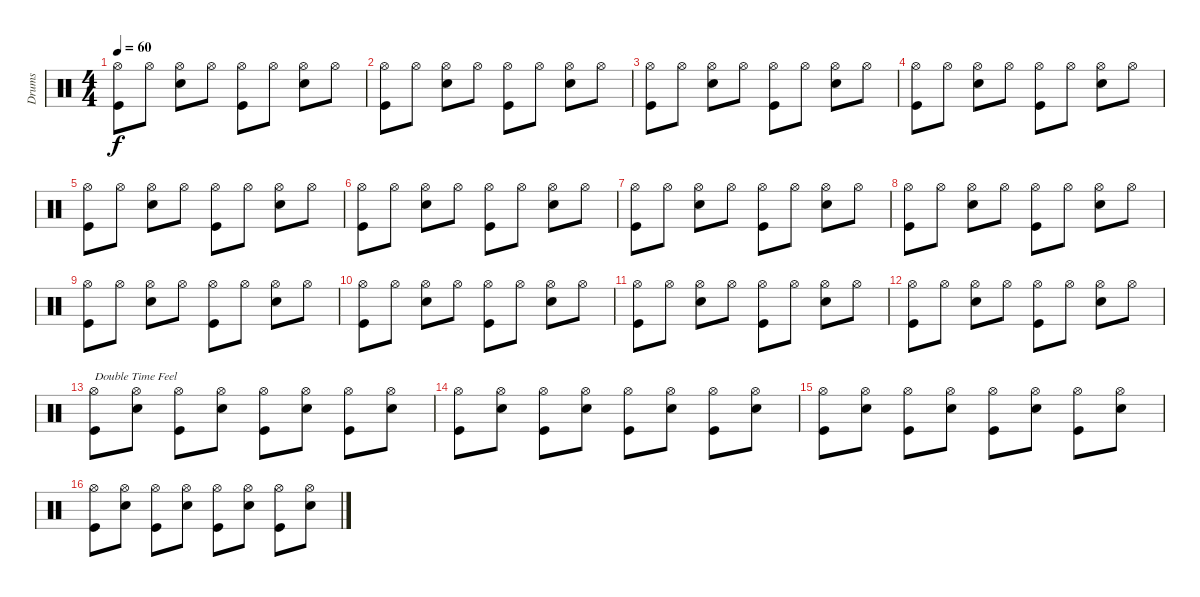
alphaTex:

\track ("Drums" "Drums") {instrument percussion}
\staff {score}
\articulation defaults
\ts (4 4)
\tempo 60
\clef neutral
\ks c
("Hi-Hat (open)" "Kick (hit)").8{dy f} "Hi-Hat (open)".8 ("Hi-Hat (open)" "Snare (hit) 2").8 "Hi-Hat (open)".8 ("Hi-Hat (open)" "Kick (hit)").8 "Hi-Hat (open)".8 ("Hi-Hat (open)" "Snare (hit) 2").8 "Hi-Hat (open)".8 |
("Hi-Hat (open)" "Kick (hit)").8 "Hi-Hat (open)".8 ("Hi-Hat (open)" "Snare (hit) 2").8 "Hi-Hat (open)".8 ("Hi-Hat (open)" "Kick (hit)").8 "Hi-Hat (open)".8 ("Hi-Hat (open)" "Snare (hit) 2").8 "Hi-Hat (open)".8 |
("Hi-Hat (open)" "Kick (hit)").8 "Hi-Hat (open)".8 ("Hi-Hat (open)" "Snare (hit) 2").8 "Hi-Hat (open)".8 ("Hi-Hat (open)" "Kick (hit)").8 "Hi-Hat (open)".8 ("Hi-Hat (open)" "Snare (hit) 2").8 "Hi-Hat (open)".8 |
("Hi-Hat (open)" "Kick (hit)").8 "Hi-Hat (open)".8 ("Hi-Hat (open)" "Snare (hit) 2").8 "Hi-Hat (open)".8 ("Hi-Hat (open)" "Kick (hit)").8 "Hi-Hat (open)".8 ("Hi-Hat (open)" "Snare (hit) 2").8 "Hi-Hat (open)".8 |
("Hi-Hat (open)" "Kick (hit)").8 "Hi-Hat (open)".8 ("Hi-Hat (open)" "Snare (hit) 2").8 "Hi-Hat (open)".8 ("Hi-Hat (open)" "Kick (hit)").8 "Hi-Hat (open)".8 ("Hi-Hat (open)" "Snare (hit) 2").8 "Hi-Hat (open)".8 |
("Hi-Hat (open)" "Kick (hit)").8 "Hi-Hat (open)".8 ("Hi-Hat (open)" "Snare (hit) 2").8 "Hi-Hat (open)".8 ("Hi-Hat (open)" "Kick (hit)").8 "Hi-Hat (open)".8 ("Hi-Hat (open)" "Snare (hit) 2").8 "Hi-Hat (open)".8 |
("Hi-Hat (open)" "Kick (hit)").8 "Hi-Hat (open)".8 ("Hi-Hat (open)" "Snare (hit) 2").8 "Hi-Hat (open)".8 ("Hi-Hat (open)" "Kick (hit)").8 "Hi-Hat (open)".8 ("Hi-Hat (open)" "Snare (hit) 2").8 "Hi-Hat (open)".8 |
("Hi-Hat (open)" "Kick (hit)").8 "Hi-Hat (open)".8 ("Hi-Hat (open)" "Snare (hit) 2").8 "Hi-Hat (open)".8 ("Hi-Hat (open)" "Kick (hit)").8 "Hi-Hat (open)".8 ("Hi-Hat (open)" "Snare (hit) 2").8 "Hi-Hat (open)".8 |
("Hi-Hat (open)" "Kick (hit)").8 "Hi-Hat (open)".8 ("Hi-Hat (open)" "Snare (hit) 2").8 "Hi-Hat (open)".8 ("Hi-Hat (open)" "Kick (hit)").8 "Hi-Hat (open)".8 ("Hi-Hat (open)" "Snare (hit) 2").8 "Hi-Hat (open)".8 |
("Hi-Hat (open)" "Kick (hit)").8 "Hi-Hat (open)".8 ("Hi-Hat (open)" "Snare (hit) 2").8 "Hi-Hat (open)".8 ("Hi-Hat (open)" "Kick (hit)").8 "Hi-Hat (open)".8 ("Hi-Hat (open)" "Snare (hit) 2").8 "Hi-Hat (open)".8 |
("Hi-Hat (open)" "Kick (hit)").8 "Hi-Hat (open)".8 ("Hi-Hat (open)" "Snare (hit) 2").8 "Hi-Hat (open)".8 ("Hi-Hat (open)" "Kick (hit)").8 "Hi-Hat (open)".8 ("Hi-Hat (open)" "Snare (hit) 2").8 "Hi-Hat (open)".8 |
("Hi-Hat (open)" "Kick (hit)").8 "Hi-Hat (open)".8 ("Hi-Hat (open)" "Snare (hit) 2").8 "Hi-Hat (open)".8 ("Hi-Hat (open)" "Kick (hit)").8 "Hi-Hat (open)".8 ("Hi-Hat (open)" "Snare (hit) 2").8 "Hi-Hat (open)".8 |
("Hi-Hat (open)" "Kick (hit)").8{txt "Double Time Feel"} ("Hi-Hat (open)" "Snare (hit) 2").8 ("Hi-Hat (open)" "Kick (hit)").8 ("Hi-Hat (open)" "Snare (hit) 2").8 ("Hi-Hat (open)" "Kick (hit)").8 ("Hi-Hat (open)" "Snare (hit) 2").8 ("Hi-Hat (open)" "Kick (hit)").8 ("Hi-Hat (open)" "Snare (hit) 2").8 |
("Hi-Hat (open)" "Kick (hit)").8 ("Hi-Hat (open)" "Snare (hit) 2").8 ("Hi-Hat (open)" "Kick (hit)").8 ("Hi-Hat (open)" "Snare (hit) 2").8 ("Hi-Hat (open)" "Kick (hit)").8 ("Hi-Hat (open)" "Snare (hit) 2").8 ("Hi-Hat (open)" "Kick (hit)").8 ("Hi-Hat (open)" "Snare (hit) 2").8 |
("Hi-Hat (open)" "Kick (hit)").8 ("Hi-Hat (open)" "Snare (hit) 2").8 ("Hi-Hat (open)" "Kick (hit)").8 ("Hi-Hat (open)" "Snare (hit) 2").8 ("Hi-Hat (open)" "Kick (hit)").8 ("Hi-Hat (open)" "Snare (hit) 2").8 ("Hi-Hat (open)" "Kick (hit)").8 ("Hi-Hat (open)" "Snare (hit) 2").8 |
("Hi-Hat (open)" "Kick (hit)").8 ("Hi-Hat (open)" "Snare (hit) 2").8 ("Hi-Hat (open)" "Kick (hit)").8 ("Hi-Hat (open)" "Snare (hit) 2").8 ("Hi-Hat (open)" "Kick (hit)").8 ("Hi-Hat (open)" "Snare (hit) 2").8 ("Hi-Hat (open)" "Kick (hit)").8 ("Hi-Hat (open)" "Snare (hit) 2").8
